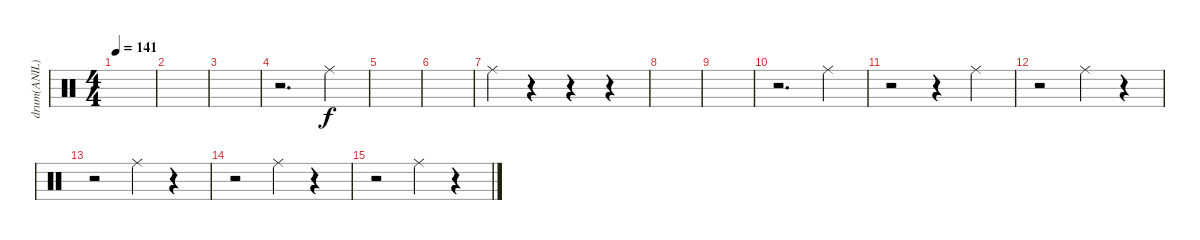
\track ("drum(ANIL)" "drum(ANIL)") {instrument percussion}
\staff {score}
\articulation defaults
\ts (4 4)
\tempo 141
\clef neutral
\ks c
|
|
|
r.2{d} "Ride (middle)".4 |
|
|
"Ride (middle)".4 r.4 r.4 r.4 |
|
|
r.2{d} "Ride (middle)".4 |
r.2 r.4 "Ride (middle)".4 |
r.2 "Ride (middle)".4 r.4 |
r.2 "Ride (middle)".4 r.4 |
r.2 "Ride (middle)".4 r.4 |
r.2 "Ride (middle)".4 r.4
